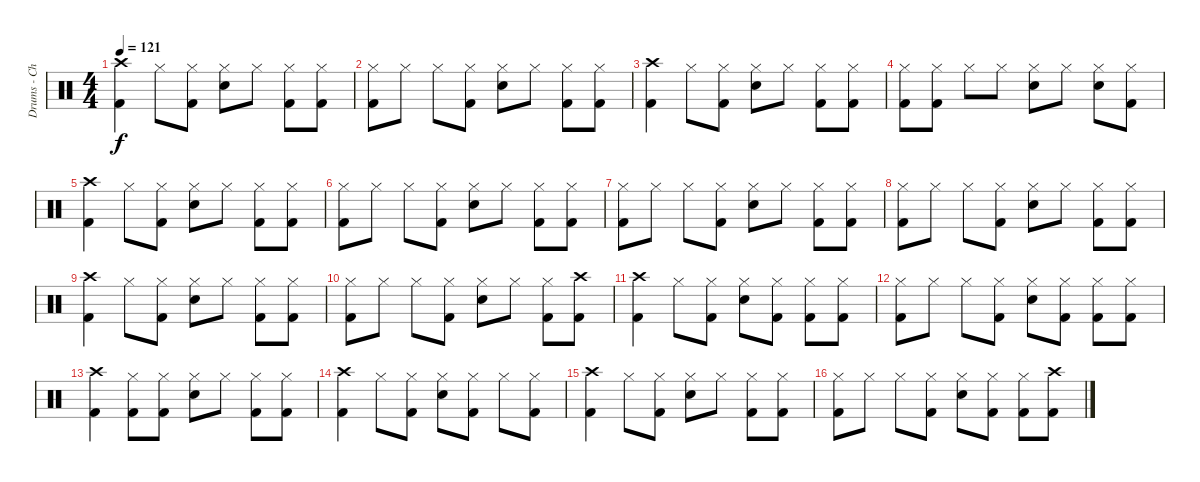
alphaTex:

\track ("Drums - Chad" "Drums - Ch") {instrument percussion}
\staff {score}
\articulation defaults
\ts (4 4)
\tempo 121
\clef neutral
\ks c
("Crash high (hit)" "Kick (hit) 2").4{dy f} "Hi-Hat (closed)".8 ("Hi-Hat (closed)" "Kick (hit) 2").8 ("Hi-Hat (closed)" "Electric Snare (hit)").8 "Hi-Hat (closed)".8 ("Hi-Hat (closed)" "Kick (hit) 2").8 ("Hi-Hat (closed)" "Kick (hit) 2").8 |
("Hi-Hat (closed)" "Kick (hit) 2").8 "Hi-Hat (closed)".8 "Hi-Hat (closed)".8 ("Hi-Hat (closed)" "Kick (hit) 2").8 ("Hi-Hat (closed)" "Electric Snare (hit)").8 "Hi-Hat (closed)".8 ("Hi-Hat (closed)" "Kick (hit) 2").8 ("Hi-Hat (closed)" "Kick (hit) 2").8 |
("Crash high (hit)" "Kick (hit) 2").4 "Hi-Hat (closed)".8 ("Hi-Hat (closed)" "Kick (hit) 2").8 ("Hi-Hat (closed)" "Electric Snare (hit)").8 "Hi-Hat (closed)".8 ("Hi-Hat (closed)" "Kick (hit) 2").8 ("Hi-Hat (closed)" "Kick (hit) 2").8 |
("Hi-Hat (closed)" "Kick (hit) 2").8 ("Hi-Hat (closed)" "Kick (hit) 2").8 "Hi-Hat (closed)".8 "Hi-Hat (closed)".8 ("Hi-Hat (closed)" "Electric Snare (hit)").8 "Hi-Hat (closed)".8 ("Hi-Hat (closed)" "Electric Snare (hit)").8 ("Hi-Hat (closed)" "Kick (hit) 2").8 |
("Crash high (hit)" "Kick (hit) 2").4 "Hi-Hat (closed)".8 ("Hi-Hat (closed)" "Kick (hit) 2").8 ("Hi-Hat (closed)" "Electric Snare (hit)").8 "Hi-Hat (closed)".8 ("Hi-Hat (closed)" "Kick (hit) 2").8 ("Hi-Hat (closed)" "Kick (hit) 2").8 |
("Hi-Hat (closed)" "Kick (hit) 2").8 "Hi-Hat (closed)".8 "Hi-Hat (closed)".8 ("Hi-Hat (closed)" "Kick (hit) 2").8 ("Hi-Hat (closed)" "Electric Snare (hit)").8 "Hi-Hat (closed)".8 ("Hi-Hat (closed)" "Kick (hit) 2").8 ("Hi-Hat (closed)" "Kick (hit) 2").8 |
("Hi-Hat (closed)" "Kick (hit) 2").8 "Hi-Hat (closed)".8 "Hi-Hat (closed)".8 ("Hi-Hat (closed)" "Kick (hit) 2").8 ("Hi-Hat (closed)" "Electric Snare (hit)").8 "Hi-Hat (closed)".8 ("Hi-Hat (closed)" "Kick (hit) 2").8 ("Hi-Hat (closed)" "Kick (hit) 2").8 |
("Hi-Hat (closed)" "Kick (hit) 2").8 "Hi-Hat (closed)".8 "Hi-Hat (closed)".8 ("Hi-Hat (closed)" "Kick (hit) 2").8 ("Hi-Hat (closed)" "Electric Snare (hit)").8 "Hi-Hat (closed)".8 ("Hi-Hat (closed)" "Kick (hit) 2").8 ("Hi-Hat (closed)" "Kick (hit) 2").8 |
("Crash high (hit)" "Kick (hit) 2").4 "Hi-Hat (closed)".8 ("Hi-Hat (closed)" "Kick (hit) 2").8 ("Hi-Hat (closed)" "Electric Snare (hit)").8 "Hi-Hat (closed)".8 ("Hi-Hat (closed)" "Kick (hit) 2").8 ("Hi-Hat (closed)" "Kick (hit) 2").8 |
("Hi-Hat (closed)" "Kick (hit) 2").8 "Hi-Hat (closed)".8 "Hi-Hat (closed)".8 ("Hi-Hat (closed)" "Kick (hit) 2").8 ("Hi-Hat (closed)" "Electric Snare (hit)").8 "Hi-Hat (closed)".8 ("Hi-Hat (closed)" "Kick (hit) 2").8 ("Crash high (hit)" "Kick (hit) 2").8 |
("Crash high (hit)" "Kick (hit) 2").4 "Hi-Hat (closed)".8 ("Hi-Hat (closed)" "Kick (hit) 2").8 ("Hi-Hat (closed)" "Electric Snare (hit)").8 ("Hi-Hat (closed)" "Kick (hit) 2").8 ("Hi-Hat (closed)" "Kick (hit) 2").8 ("Hi-Hat (closed)" "Kick (hit) 2").8 |
("Hi-Hat (closed)" "Kick (hit) 2").8 "Hi-Hat (closed)".8 "Hi-Hat (closed)".8 ("Hi-Hat (closed)" "Kick (hit) 2").8 ("Hi-Hat (closed)" "Electric Snare (hit)").8 ("Hi-Hat (closed)" "Kick (hit) 2").8 ("Hi-Hat (closed)" "Kick (hit) 2").8 ("Hi-Hat (closed)" "Kick (hit) 2").8 |
("Crash high (hit)" "Kick (hit) 2").4 ("Hi-Hat (closed)" "Kick (hit) 2").8 ("Hi-Hat (closed)" "Kick (hit) 2").8 ("Hi-Hat (closed)" "Electric Snare (hit)").8 "Hi-Hat (closed)".8 ("Hi-Hat (closed)" "Kick (hit) 2").8 ("Hi-Hat (closed)" "Kick (hit) 2").8 |
("Crash high (hit)" "Kick (hit) 2").4 "Hi-Hat (closed)".8 ("Hi-Hat (closed)" "Kick (hit) 2").8 ("Hi-Hat (closed)" "Electric Snare (hit)").8 ("Hi-Hat (closed)" "Kick (hit) 2").8 "Hi-Hat (closed)".8 ("Hi-Hat (closed)" "Kick (hit) 2").8 |
("Crash high (hit)" "Kick (hit) 2").4 "Hi-Hat (closed)".8 ("Hi-Hat (closed)" "Kick (hit) 2").8 ("Hi-Hat (closed)" "Electric Snare (hit)").8 "Hi-Hat (closed)".8 ("Hi-Hat (closed)" "Kick (hit) 2").8 ("Hi-Hat (closed)" "Kick (hit) 2").8 |
("Hi-Hat (closed)" "Kick (hit) 2").8 "Hi-Hat (closed)".8 "Hi-Hat (closed)".8 ("Hi-Hat (closed)" "Kick (hit) 2").8 ("Hi-Hat (closed)" "Electric Snare (hit)").8 ("Hi-Hat (closed)" "Kick (hit) 2").8 ("Hi-Hat (closed)" "Kick (hit) 2").8 ("Crash high (hit)" "Kick (hit) 2").8
